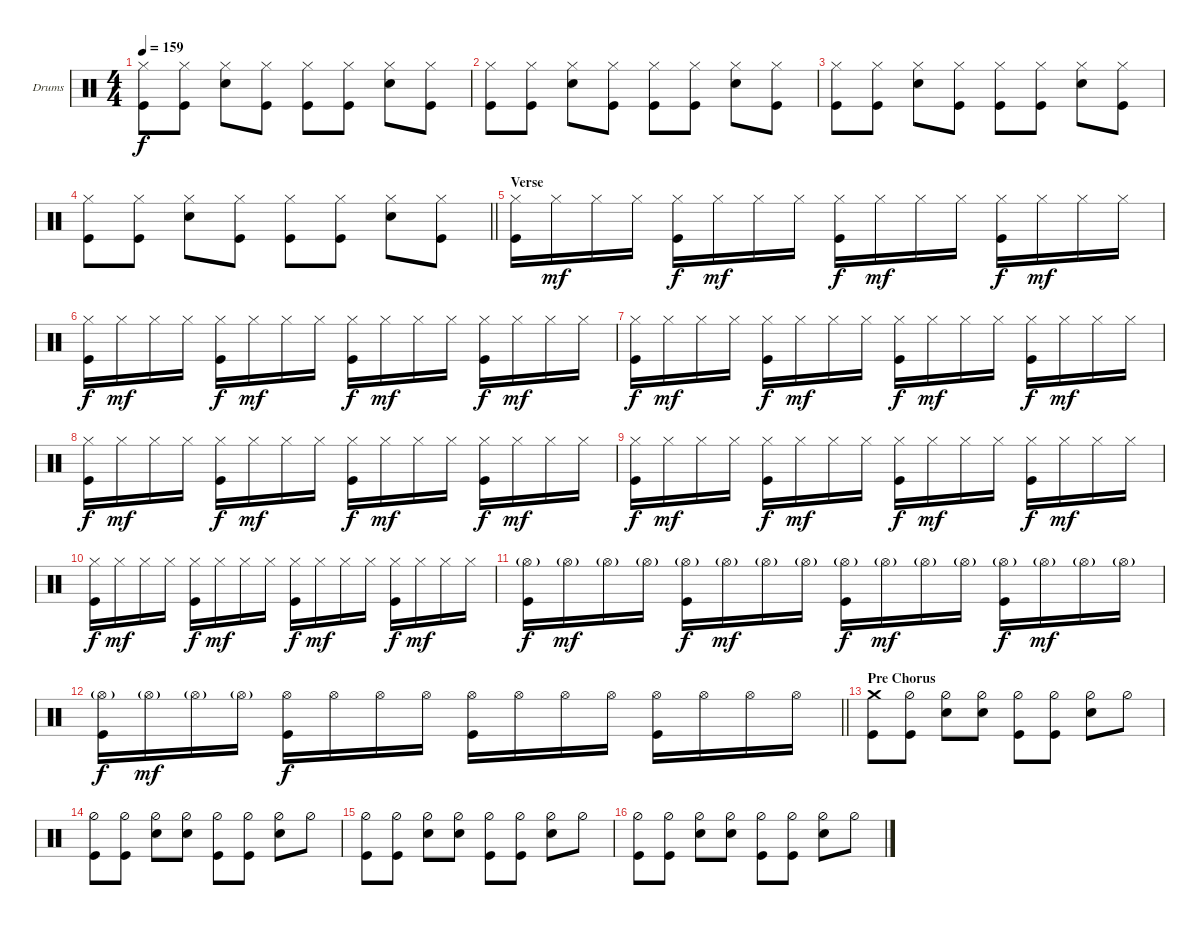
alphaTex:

\bracketExtendMode groupsimilarinstruments
\firstSystemTrackNameOrientation horizontal
\otherSystemsTrackNameOrientation horizontal
\track ("Fabrizio" "Drums") {instrument percussion}
\staff {score}
\articulation defaults
\ts (4 4)
\tempo 159
\clef neutral
\ks c
("Kick (hit)" "Hi-Hat (closed)").8{dy f} ("Hi-Hat (closed)" "Kick (hit)").8 ("Snare (hit) 2" "Hi-Hat (closed)").8 ("Hi-Hat (closed)" "Kick (hit)").8 ("Kick (hit)" "Hi-Hat (closed)").8 ("Hi-Hat (closed)" "Kick (hit)").8 ("Snare (hit) 2" "Hi-Hat (closed)").8 ("Hi-Hat (closed)" "Kick (hit)").8 |
("Kick (hit)" "Hi-Hat (closed)").8 ("Hi-Hat (closed)" "Kick (hit)").8 ("Snare (hit) 2" "Hi-Hat (closed)").8 ("Hi-Hat (closed)" "Kick (hit)").8 ("Kick (hit)" "Hi-Hat (closed)").8 ("Hi-Hat (closed)" "Kick (hit)").8 ("Snare (hit) 2" "Hi-Hat (closed)").8 ("Hi-Hat (closed)" "Kick (hit)").8 |
("Kick (hit)" "Hi-Hat (closed)").8 ("Hi-Hat (closed)" "Kick (hit)").8 ("Snare (hit) 2" "Hi-Hat (closed)").8 ("Hi-Hat (closed)" "Kick (hit)").8 ("Kick (hit)" "Hi-Hat (closed)").8 ("Hi-Hat (closed)" "Kick (hit)").8 ("Snare (hit) 2" "Hi-Hat (closed)").8 ("Hi-Hat (closed)" "Kick (hit)").8 |
\barLineRight lightlight
("Kick (hit)" "Hi-Hat (closed)").8 ("Hi-Hat (closed)" "Kick (hit)").8 ("Snare (hit) 2" "Hi-Hat (closed)").8 ("Hi-Hat (closed)" "Kick (hit)").8 ("Kick (hit)" "Hi-Hat (closed)").8 ("Hi-Hat (closed)" "Kick (hit)").8 ("Snare (hit) 2" "Hi-Hat (closed)").8 ("Hi-Hat (closed)" "Kick (hit)").8 |
\section ("" "Verse")
("Kick (hit)" "Hi-Hat (closed)").16 "Hi-Hat (closed)".16{dy mf} "Hi-Hat (closed)".16 "Hi-Hat (closed)".16 ("Kick (hit)" "Hi-Hat (closed)").16{dy f} "Hi-Hat (closed)".16{dy mf} "Hi-Hat (closed)".16 "Hi-Hat (closed)".16 ("Kick (hit)" "Hi-Hat (closed)").16{dy f} "Hi-Hat (closed)".16{dy mf} "Hi-Hat (closed)".16 "Hi-Hat (closed)".16 ("Kick (hit)" "Hi-Hat (closed)").16{dy f} "Hi-Hat (closed)".16{dy mf} "Hi-Hat (closed)".16 "Hi-Hat (closed)".16 |
("Kick (hit)" "Hi-Hat (closed)").16{dy f} "Hi-Hat (closed)".16{dy mf} "Hi-Hat (closed)".16 "Hi-Hat (closed)".16 ("Kick (hit)" "Hi-Hat (closed)").16{dy f} "Hi-Hat (closed)".16{dy mf} "Hi-Hat (closed)".16 "Hi-Hat (closed)".16 ("Kick (hit)" "Hi-Hat (closed)").16{dy f} "Hi-Hat (closed)".16{dy mf} "Hi-Hat (closed)".16 "Hi-Hat (closed)".16 ("Kick (hit)" "Hi-Hat (closed)").16{dy f} "Hi-Hat (closed)".16{dy mf} "Hi-Hat (closed)".16 "Hi-Hat (closed)".16 |
("Kick (hit)" "Hi-Hat (closed)").16{dy f} "Hi-Hat (closed)".16{dy mf} "Hi-Hat (closed)".16 "Hi-Hat (closed)".16 ("Kick (hit)" "Hi-Hat (closed)").16{dy f} "Hi-Hat (closed)".16{dy mf} "Hi-Hat (closed)".16 "Hi-Hat (closed)".16 ("Kick (hit)" "Hi-Hat (closed)").16{dy f} "Hi-Hat (closed)".16{dy mf} "Hi-Hat (closed)".16 "Hi-Hat (closed)".16 ("Kick (hit)" "Hi-Hat (closed)").16{dy f} "Hi-Hat (closed)".16{dy mf} "Hi-Hat (closed)".16 "Hi-Hat (closed)".16 |
("Kick (hit)" "Hi-Hat (closed)").16{dy f} "Hi-Hat (closed)".16{dy mf} "Hi-Hat (closed)".16 "Hi-Hat (closed)".16 ("Kick (hit)" "Hi-Hat (closed)").16{dy f} "Hi-Hat (closed)".16{dy mf} "Hi-Hat (closed)".16 "Hi-Hat (closed)".16 ("Kick (hit)" "Hi-Hat (closed)").16{dy f} "Hi-Hat (closed)".16{dy mf} "Hi-Hat (closed)".16 "Hi-Hat (closed)".16 ("Kick (hit)" "Hi-Hat (closed)").16{dy f} "Hi-Hat (closed)".16{dy mf} "Hi-Hat (closed)".16 "Hi-Hat (closed)".16 |
("Kick (hit)" "Hi-Hat (closed)").16{dy f} "Hi-Hat (closed)".16{dy mf} "Hi-Hat (closed)".16 "Hi-Hat (closed)".16 ("Kick (hit)" "Hi-Hat (closed)").16{dy f} "Hi-Hat (closed)".16{dy mf} "Hi-Hat (closed)".16 "Hi-Hat (closed)".16 ("Kick (hit)" "Hi-Hat (closed)").16{dy f} "Hi-Hat (closed)".16{dy mf} "Hi-Hat (closed)".16 "Hi-Hat (closed)".16 ("Kick (hit)" "Hi-Hat (closed)").16{dy f} "Hi-Hat (closed)".16{dy mf} "Hi-Hat (closed)".16 "Hi-Hat (closed)".16 |
("Kick (hit)" "Hi-Hat (closed)").16{dy f} "Hi-Hat (closed)".16{dy mf} "Hi-Hat (closed)".16 "Hi-Hat (closed)".16 ("Kick (hit)" "Hi-Hat (closed)").16{dy f} "Hi-Hat (closed)".16{dy mf} "Hi-Hat (closed)".16 "Hi-Hat (closed)".16 ("Kick (hit)" "Hi-Hat (closed)").16{dy f} "Hi-Hat (closed)".16{dy mf} "Hi-Hat (closed)".16 "Hi-Hat (closed)".16 ("Kick (hit)" "Hi-Hat (closed)").16{dy f} "Hi-Hat (closed)".16{dy mf} "Hi-Hat (closed)".16 "Hi-Hat (closed)".16 |
("Hi-Hat (open)"{g} "Kick (hit)").16{dy f} "Hi-Hat (open)"{g}.16{dy mf} "Hi-Hat (open)"{g}.16 "Hi-Hat (open)"{g}.16 ("Hi-Hat (open)"{g} "Kick (hit)").16{dy f} "Hi-Hat (open)"{g}.16{dy mf} "Hi-Hat (open)"{g}.16 "Hi-Hat (open)"{g}.16 ("Hi-Hat (open)"{g} "Kick (hit)").16{dy f} "Hi-Hat (open)"{g}.16{dy mf} "Hi-Hat (open)"{g}.16 "Hi-Hat (open)"{g}.16 ("Hi-Hat (open)"{g} "Kick (hit)").16{dy f} "Hi-Hat (open)"{g}.16{dy mf} "Hi-Hat (open)"{g}.16 "Hi-Hat (open)"{g}.16 |
\barLineRight lightlight
("Hi-Hat (open)"{g} "Kick (hit)").16{dy f} "Hi-Hat (open)"{g}.16{dy mf} "Hi-Hat (open)"{g}.16 "Hi-Hat (open)"{g}.16 ("Hi-Hat (open)" "Kick (hit)").16{dy f} "Hi-Hat (open)".16 "Hi-Hat (open)".16 "Hi-Hat (open)".16 ("Hi-Hat (open)" "Kick (hit)").16 "Hi-Hat (open)".16 "Hi-Hat (open)".16 "Hi-Hat (open)".16 ("Hi-Hat (open)" "Kick (hit)").16 "Hi-Hat (open)".16 "Hi-Hat (open)".16 "Hi-Hat (open)".16 |
\section ("" "Pre Chorus")
("Crash medium (hit)" "Kick (hit)").8 ("Kick (hit)" "Hi-Hat (half)").8 ("Snare (hit) 2" "Hi-Hat (half)").8 ("Snare (hit) 2" "Hi-Hat (half)").8 ("Hi-Hat (half)" "Kick (hit)").8 ("Kick (hit)" "Hi-Hat (half)").8 ("Snare (hit) 2" "Hi-Hat (half)").8 "Hi-Hat (half)".8 |
("Kick (hit)" "Hi-Hat (half)").8 ("Kick (hit)" "Hi-Hat (half)").8 ("Snare (hit) 2" "Hi-Hat (half)").8 ("Snare (hit) 2" "Hi-Hat (half)").8 ("Hi-Hat (half)" "Kick (hit)").8 ("Kick (hit)" "Hi-Hat (half)").8 ("Snare (hit) 2" "Hi-Hat (half)").8 "Hi-Hat (half)".8 |
("Kick (hit)" "Hi-Hat (half)").8 ("Kick (hit)" "Hi-Hat (half)").8 ("Snare (hit) 2" "Hi-Hat (half)").8 ("Snare (hit) 2" "Hi-Hat (half)").8 ("Hi-Hat (half)" "Kick (hit)").8 ("Kick (hit)" "Hi-Hat (half)").8 ("Snare (hit) 2" "Hi-Hat (half)").8 "Hi-Hat (half)".8 |
("Kick (hit)" "Hi-Hat (half)").8 ("Kick (hit)" "Hi-Hat (half)").8 ("Snare (hit) 2" "Hi-Hat (half)").8 ("Snare (hit) 2" "Hi-Hat (half)").8 ("Hi-Hat (half)" "Kick (hit)").8 ("Kick (hit)" "Hi-Hat (half)").8 ("Snare (hit) 2" "Hi-Hat (half)").8 "Hi-Hat (half)".8
